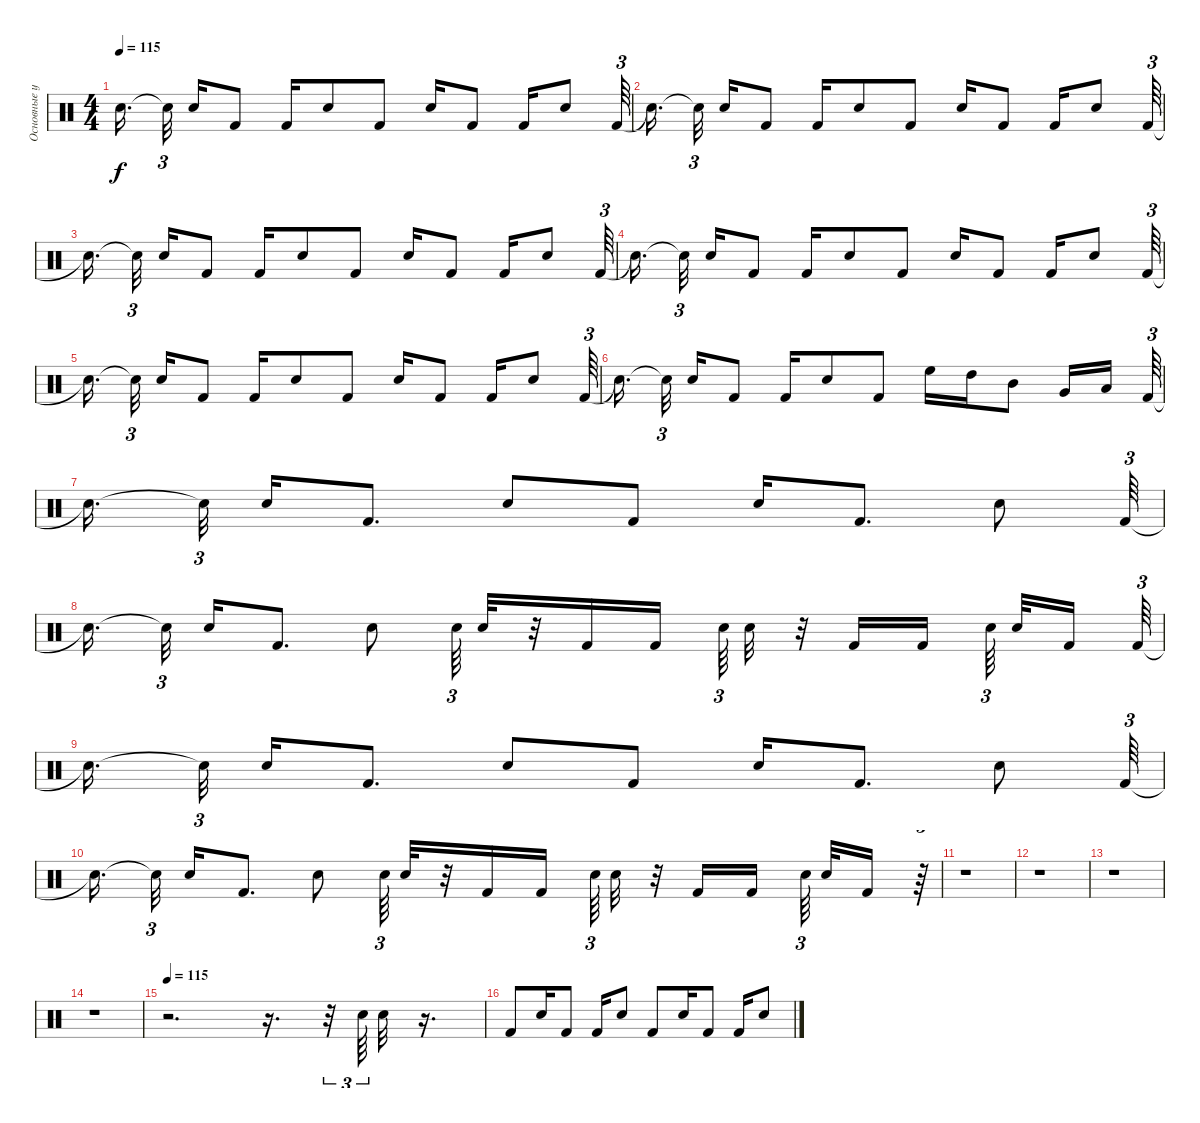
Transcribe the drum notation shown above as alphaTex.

\track ("Основные ударные" "Основные у") {instrument percussion}
\staff {score}
\articulation defaults
\ts (4 4)
\tempo 115
\clef neutral
\ks c "Snare (hit)"{t}.16{d dy f beam splitsecondary} "Snare (hit)"{t}.32{tu (3 2) beam splitsecondary} "Electric Snare (hit)".16 "Kick (hit) 2".8 "Kick (hit) 2".16 "Electric Snare (hit)".8 "Kick (hit) 2".8 "Electric Snare (hit)".16 "Kick (hit) 2".8 "Kick (hit) 2".16 "Electric Snare (hit)".8 "Kick (hit) 2".64{tu (3 2)}
|
"Snare (hit)"{t}.16{d beam splitsecondary} "Snare (hit)"{t}.32{tu (3 2) beam splitsecondary} "Electric Snare (hit)".16 "Kick (hit) 2".8 "Kick (hit) 2".16 "Electric Snare (hit)".8 "Kick (hit) 2".8 "Electric Snare (hit)".16 "Kick (hit) 2".8 "Kick (hit) 2".16 "Electric Snare (hit)".8 "Kick (hit) 2".64{tu (3 2)} |
"Snare (hit)"{t}.16{d beam splitsecondary} "Snare (hit)"{t}.32{tu (3 2) beam splitsecondary} "Electric Snare (hit)".16 "Kick (hit) 2".8 "Kick (hit) 2".16 "Electric Snare (hit)".8 "Kick (hit) 2".8 "Electric Snare (hit)".16 "Kick (hit) 2".8 "Kick (hit) 2".16 "Electric Snare (hit)".8 "Kick (hit) 2".64{tu (3 2)} |
"Snare (hit)"{t}.16{d beam splitsecondary} "Snare (hit)"{t}.32{tu (3 2) beam splitsecondary} "Electric Snare (hit)".16 "Kick (hit) 2".8 "Kick (hit) 2".16 "Electric Snare (hit)".8 "Kick (hit) 2".8 "Electric Snare (hit)".16 "Kick (hit) 2".8 "Kick (hit) 2".16 "Electric Snare (hit)".8 "Kick (hit) 2".64{tu (3 2)} |
"Snare (hit)"{t}.16{d beam splitsecondary} "Snare (hit)"{t}.32{tu (3 2) beam splitsecondary} "Electric Snare (hit)".16 "Kick (hit) 2".8 "Kick (hit) 2".16 "Electric Snare (hit)".8 "Kick (hit) 2".8 "Electric Snare (hit)".16 "Kick (hit) 2".8 "Kick (hit) 2".16 "Electric Snare (hit)".8 "Kick (hit) 2".64{tu (3 2)} |
"Snare (hit)"{t}.16{d beam splitsecondary} "Snare (hit)"{t}.32{tu (3 2) beam splitsecondary} "Electric Snare (hit)".16 "Kick (hit) 2".8 "Kick (hit) 2".16 "Electric Snare (hit)".8 "Kick (hit) 2".8 "High Floor Tom (hit)".16 "High Tom (hit)".16 "Mid Tom (hit)".8 "Very Low Tom (hit)".16 "Low Floor Tom (hit)".16{beam splitsecondary} "Kick (hit) 2".64{tu (3 2)} |
"Snare (hit)"{t}.16{d beam splitsecondary} "Snare (hit)"{t}.32{tu (3 2) beam splitsecondary} "Electric Snare (hit)".16 "Kick (hit) 2".8{d} "Electric Snare (hit)".8 "Kick (hit) 2".8 "Electric Snare (hit)".16 "Kick (hit) 2".8{d} "Electric Snare (hit)".8 "Kick (hit) 2".64{tu (3 2)} |
"Snare (hit)"{t}.16{d beam splitsecondary} "Snare (hit)"{t}.32{tu (3 2) beam splitsecondary} "Electric Snare (hit)".16 "Kick (hit) 2".8{d} "Electric Snare (hit)".8 "Electric Snare (hit)".64{tu (3 2)} "Electric Snare (hit)".32 r.32 "Kick (hit) 2".16 "Kick (hit) 2".16{beam splitsecondary} "Electric Snare (hit)".64{tu (3 2)} "Electric Snare (hit)".32 r.32 "Kick (hit) 2".16 "Kick (hit) 2".16{beam splitsecondary} "Electric Snare (hit)".64{tu (3 2) beam splitsecondary} "Electric Snare (hit)".32 "Kick (hit) 2".16{beam splitsecondary} "Kick (hit) 2".64{tu (3 2)} |
"Snare (hit)"{t}.16{d beam splitsecondary} "Snare (hit)"{t}.32{tu (3 2) beam splitsecondary} "Electric Snare (hit)".16 "Kick (hit) 2".8{d} "Electric Snare (hit)".8 "Kick (hit) 2".8 "Electric Snare (hit)".16 "Kick (hit) 2".8{d} "Electric Snare (hit)".8 "Kick (hit) 2".64{tu (3 2)} |
"Snare (hit)"{t}.16{d beam splitsecondary} "Snare (hit)"{t}.32{tu (3 2) beam splitsecondary} "Electric Snare (hit)".16 "Kick (hit) 2".8{d} "Electric Snare (hit)".8 "Electric Snare (hit)".64{tu (3 2)} "Electric Snare (hit)".32 r.32 "Kick (hit) 2".16 "Kick (hit) 2".16{beam splitsecondary} "Electric Snare (hit)".64{tu (3 2)} "Electric Snare (hit)".32 r.32 "Kick (hit) 2".16 "Kick (hit) 2".16{beam splitsecondary} "Electric Snare (hit)".64{tu (3 2) beam splitsecondary} "Electric Snare (hit)".32 "Kick (hit) 2".16 r.64{tu (3 2)} |
r.1 |
r.1 |
r.1 |
r.1 |
\tempo 115
r.2{d} r.16{d} r.32{tu (3 2)} "Electric Snare (hit)".64{tu (3 2)} "Electric Snare (hit)".32 r.16{d} |
"Kick (hit) 2".8 "Electric Snare (hit)".16 "Kick (hit) 2".8 "Kick (hit) 2".16 "Electric Snare (hit)".8 "Kick (hit) 2".8 "Electric Snare (hit)".16 "Kick (hit) 2".8 "Kick (hit) 2".16 "Electric Snare (hit)".8
